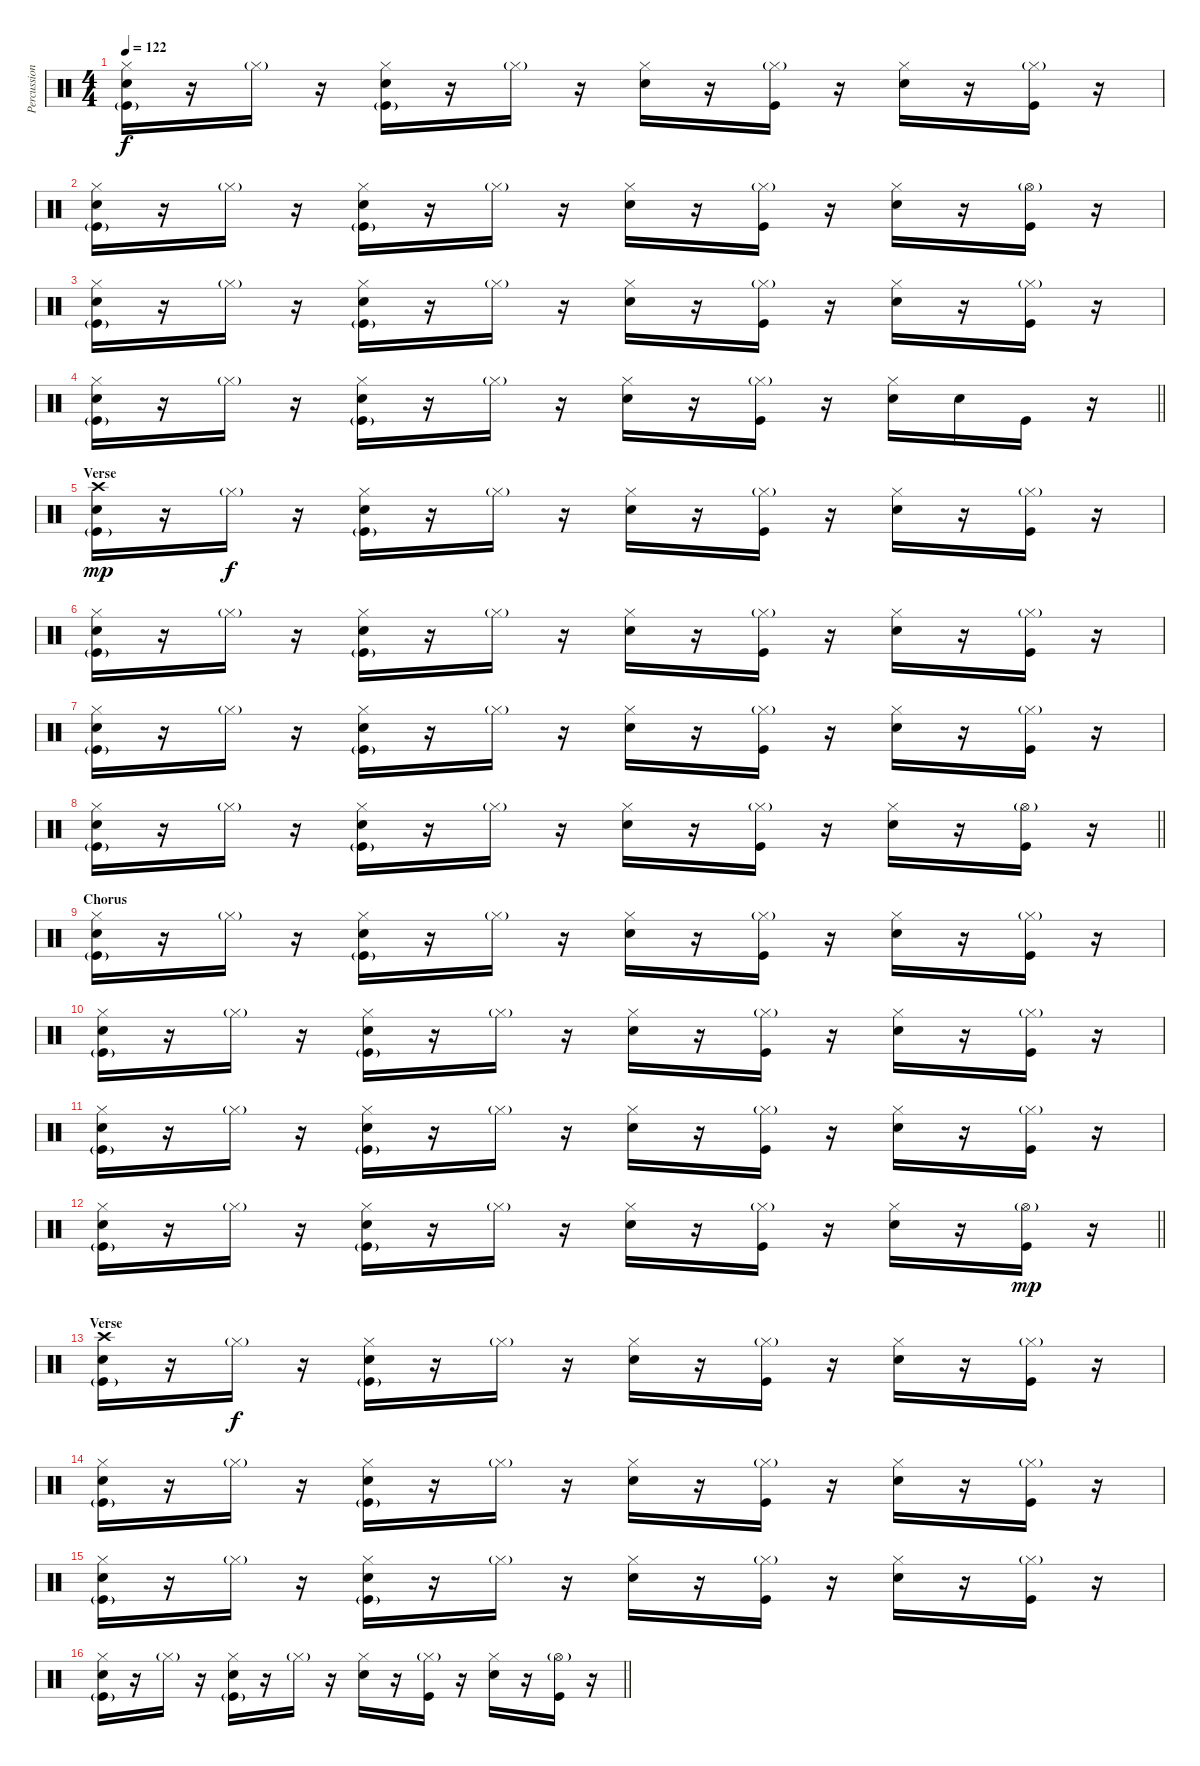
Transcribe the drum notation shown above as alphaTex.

\track ("Percussion" "Percussion") {instrument percussion bank 177}
\staff {score}
\articulation defaults
\ts (4 4)
\tempo 122
\clef neutral
\ks c
("Hi-Hat (closed)" "Snare (hit) 2" "Kick (hit)"{g}).16{dy f} r.16 "Hi-Hat (closed)"{g}.16 r.16 ("Hi-Hat (closed)" "Snare (hit) 2" "Kick (hit)"{g}).16 r.16 "Hi-Hat (closed)"{g}.16 r.16 ("Hi-Hat (closed)" "Snare (hit) 2").16 r.16 ("Hi-Hat (closed)"{g} "Kick (hit)").16 r.16 ("Hi-Hat (closed)" "Snare (hit) 2").16 r.16 ("Hi-Hat (closed)"{g} "Kick (hit)").16 r.16 |
("Hi-Hat (closed)" "Snare (hit) 2" "Kick (hit)"{g}).16 r.16 "Hi-Hat (closed)"{g}.16 r.16 ("Hi-Hat (closed)" "Snare (hit) 2" "Kick (hit)"{g}).16 r.16 "Hi-Hat (closed)"{g}.16 r.16 ("Hi-Hat (closed)" "Snare (hit) 2").16 r.16 ("Hi-Hat (closed)"{g} "Kick (hit)").16 r.16 ("Hi-Hat (closed)" "Snare (hit) 2").16 r.16 ("Hi-Hat (open)"{g} "Kick (hit)").16 r.16 |
("Hi-Hat (closed)" "Snare (hit) 2" "Kick (hit)"{g}).16 r.16 "Hi-Hat (closed)"{g}.16 r.16 ("Hi-Hat (closed)" "Snare (hit) 2" "Kick (hit)"{g}).16 r.16 "Hi-Hat (closed)"{g}.16 r.16 ("Hi-Hat (closed)" "Snare (hit) 2").16 r.16 ("Hi-Hat (closed)"{g} "Kick (hit)").16 r.16 ("Hi-Hat (closed)" "Snare (hit) 2").16 r.16 ("Hi-Hat (closed)"{g} "Kick (hit)").16 r.16 |
\barLineRight lightlight
("Hi-Hat (closed)" "Snare (hit) 2" "Kick (hit)"{g}).16 r.16 "Hi-Hat (closed)"{g}.16 r.16 ("Hi-Hat (closed)" "Snare (hit) 2" "Kick (hit)"{g}).16 r.16 "Hi-Hat (closed)"{g}.16 r.16 ("Hi-Hat (closed)" "Snare (hit) 2").16 r.16 ("Hi-Hat (closed)"{g} "Kick (hit)").16 r.16 ("Hi-Hat (closed)" "Snare (hit) 2").16 "Snare (hit) 2".16 "Kick (hit)".16 r.16 |
\section ("" "Verse")
("Crash high (hit)" "Snare (hit) 2" "Kick (hit)"{g}).16{dy mp} r.16 "Hi-Hat (closed)"{g}.16{dy f} r.16 ("Hi-Hat (closed)" "Snare (hit) 2" "Kick (hit)"{g}).16 r.16 "Hi-Hat (closed)"{g}.16 r.16 ("Hi-Hat (closed)" "Snare (hit) 2").16 r.16 ("Hi-Hat (closed)"{g} "Kick (hit)").16 r.16 ("Hi-Hat (closed)" "Snare (hit) 2").16 r.16 ("Hi-Hat (closed)"{g} "Kick (hit)").16 r.16 |
("Hi-Hat (closed)" "Snare (hit) 2" "Kick (hit)"{g}).16 r.16 "Hi-Hat (closed)"{g}.16 r.16 ("Hi-Hat (closed)" "Snare (hit) 2" "Kick (hit)"{g}).16 r.16 "Hi-Hat (closed)"{g}.16 r.16 ("Hi-Hat (closed)" "Snare (hit) 2").16 r.16 ("Hi-Hat (closed)"{g} "Kick (hit)").16 r.16 ("Hi-Hat (closed)" "Snare (hit) 2").16 r.16 ("Hi-Hat (closed)"{g} "Kick (hit)").16 r.16 |
("Hi-Hat (closed)" "Snare (hit) 2" "Kick (hit)"{g}).16 r.16 "Hi-Hat (closed)"{g}.16 r.16 ("Hi-Hat (closed)" "Snare (hit) 2" "Kick (hit)"{g}).16 r.16 "Hi-Hat (closed)"{g}.16 r.16 ("Hi-Hat (closed)" "Snare (hit) 2").16 r.16 ("Hi-Hat (closed)"{g} "Kick (hit)").16 r.16 ("Hi-Hat (closed)" "Snare (hit) 2").16 r.16 ("Hi-Hat (closed)"{g} "Kick (hit)").16 r.16 |
\barLineRight lightlight
("Hi-Hat (closed)" "Snare (hit) 2" "Kick (hit)"{g}).16 r.16 "Hi-Hat (closed)"{g}.16 r.16 ("Hi-Hat (closed)" "Snare (hit) 2" "Kick (hit)"{g}).16 r.16 "Hi-Hat (closed)"{g}.16 r.16 ("Hi-Hat (closed)" "Snare (hit) 2").16 r.16 ("Hi-Hat (closed)"{g} "Kick (hit)").16 r.16 ("Hi-Hat (closed)" "Snare (hit) 2").16 r.16 ("Hi-Hat (open)"{g} "Kick (hit)").16 r.16 |
\section ("" "Chorus")
("Hi-Hat (closed)" "Snare (hit) 2" "Kick (hit)"{g}).16 r.16 "Hi-Hat (closed)"{g}.16 r.16 ("Hi-Hat (closed)" "Snare (hit) 2" "Kick (hit)"{g}).16 r.16 "Hi-Hat (closed)"{g}.16 r.16 ("Hi-Hat (closed)" "Snare (hit) 2").16 r.16 ("Hi-Hat (closed)"{g} "Kick (hit)").16 r.16 ("Hi-Hat (closed)" "Snare (hit) 2").16 r.16 ("Hi-Hat (closed)"{g} "Kick (hit)").16 r.16 |
("Hi-Hat (closed)" "Snare (hit) 2" "Kick (hit)"{g}).16 r.16 "Hi-Hat (closed)"{g}.16 r.16 ("Hi-Hat (closed)" "Snare (hit) 2" "Kick (hit)"{g}).16 r.16 "Hi-Hat (closed)"{g}.16 r.16 ("Hi-Hat (closed)" "Snare (hit) 2").16 r.16 ("Hi-Hat (closed)"{g} "Kick (hit)").16 r.16 ("Hi-Hat (closed)" "Snare (hit) 2").16 r.16 ("Hi-Hat (closed)"{g} "Kick (hit)").16 r.16 |
("Hi-Hat (closed)" "Snare (hit) 2" "Kick (hit)"{g}).16 r.16 "Hi-Hat (closed)"{g}.16 r.16 ("Hi-Hat (closed)" "Snare (hit) 2" "Kick (hit)"{g}).16 r.16 "Hi-Hat (closed)"{g}.16 r.16 ("Hi-Hat (closed)" "Snare (hit) 2").16 r.16 ("Hi-Hat (closed)"{g} "Kick (hit)").16 r.16 ("Hi-Hat (closed)" "Snare (hit) 2").16 r.16 ("Hi-Hat (closed)"{g} "Kick (hit)").16 r.16 |
\barLineRight lightlight
("Hi-Hat (closed)" "Snare (hit) 2" "Kick (hit)"{g}).16 r.16 "Hi-Hat (closed)"{g}.16 r.16 ("Hi-Hat (closed)" "Snare (hit) 2" "Kick (hit)"{g}).16 r.16 "Hi-Hat (closed)"{g}.16 r.16 ("Hi-Hat (closed)" "Snare (hit) 2").16 r.16 ("Hi-Hat (closed)"{g} "Kick (hit)").16 r.16 ("Hi-Hat (closed)" "Snare (hit) 2").16 r.16 ("Hi-Hat (open)"{g} "Kick (hit)").16{dy mp} r.16 |
\section ("" "Verse")
("Crash high (hit)" "Snare (hit) 2" "Kick (hit)"{g}).16 r.16 "Hi-Hat (closed)"{g}.16{dy f} r.16 ("Hi-Hat (closed)" "Snare (hit) 2" "Kick (hit)"{g}).16 r.16 "Hi-Hat (closed)"{g}.16 r.16 ("Hi-Hat (closed)" "Snare (hit) 2").16 r.16 ("Hi-Hat (closed)"{g} "Kick (hit)").16 r.16 ("Hi-Hat (closed)" "Snare (hit) 2").16 r.16 ("Hi-Hat (closed)"{g} "Kick (hit)").16 r.16 |
("Hi-Hat (closed)" "Snare (hit) 2" "Kick (hit)"{g}).16 r.16 "Hi-Hat (closed)"{g}.16 r.16 ("Hi-Hat (closed)" "Snare (hit) 2" "Kick (hit)"{g}).16 r.16 "Hi-Hat (closed)"{g}.16 r.16 ("Hi-Hat (closed)" "Snare (hit) 2").16 r.16 ("Hi-Hat (closed)"{g} "Kick (hit)").16 r.16 ("Hi-Hat (closed)" "Snare (hit) 2").16 r.16 ("Hi-Hat (closed)"{g} "Kick (hit)").16 r.16 |
("Hi-Hat (closed)" "Snare (hit) 2" "Kick (hit)"{g}).16 r.16 "Hi-Hat (closed)"{g}.16 r.16 ("Hi-Hat (closed)" "Snare (hit) 2" "Kick (hit)"{g}).16 r.16 "Hi-Hat (closed)"{g}.16 r.16 ("Hi-Hat (closed)" "Snare (hit) 2").16 r.16 ("Hi-Hat (closed)"{g} "Kick (hit)").16 r.16 ("Hi-Hat (closed)" "Snare (hit) 2").16 r.16 ("Hi-Hat (closed)"{g} "Kick (hit)").16 r.16 |
\barLineRight lightlight
("Hi-Hat (closed)" "Snare (hit) 2" "Kick (hit)"{g}).16 r.16 "Hi-Hat (closed)"{g}.16 r.16 ("Hi-Hat (closed)" "Snare (hit) 2" "Kick (hit)"{g}).16 r.16 "Hi-Hat (closed)"{g}.16 r.16 ("Hi-Hat (closed)" "Snare (hit) 2").16 r.16 ("Hi-Hat (closed)"{g} "Kick (hit)").16 r.16 ("Hi-Hat (closed)" "Snare (hit) 2").16 r.16 ("Hi-Hat (open)"{g} "Kick (hit)").16 r.16
